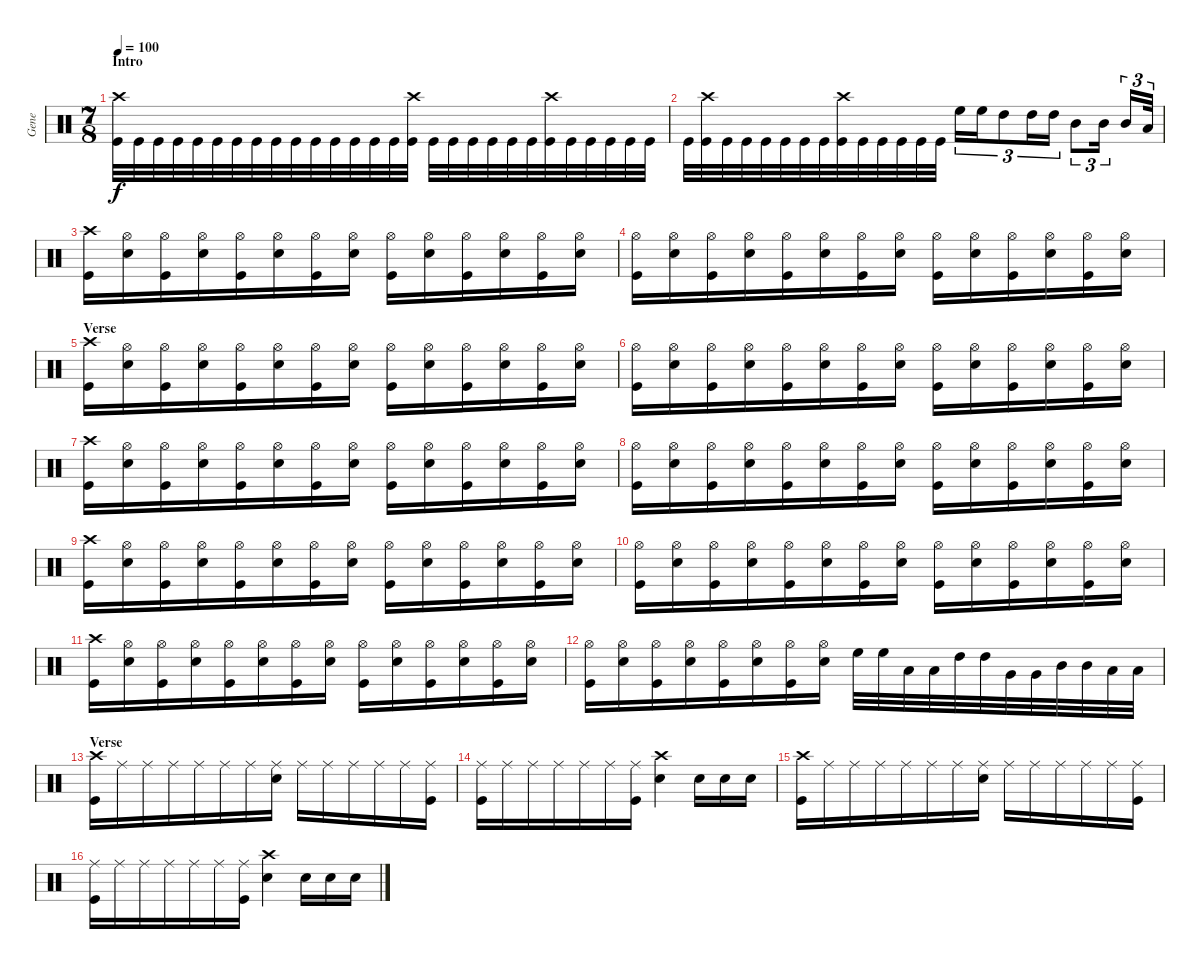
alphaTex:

\track ("Gene" "Gene") {instrument percussion}
\staff {score}
\articulation defaults
\ts (7 8)
\section ("" "Intro")
\tempo 100
\clef neutral
\ks c
("Crash high (hit)" "Kick (hit)").32{dy f} "Kick (hit)".32 "Kick (hit)".32 "Kick (hit)".32 "Kick (hit)".32 "Kick (hit)".32 "Kick (hit)".32 "Kick (hit)".32 "Kick (hit)".32 "Kick (hit)".32 "Kick (hit)".32 "Kick (hit)".32 "Kick (hit)".32 "Kick (hit)".32 "Kick (hit)".32 ("Crash high (hit)" "Kick (hit)").32 "Kick (hit)".32 "Kick (hit)".32 "Kick (hit)".32 "Kick (hit)".32 "Kick (hit)".32 "Kick (hit)".32 ("Crash high (hit)" "Kick (hit)").32 "Kick (hit)".32 "Kick (hit)".32 "Kick (hit)".32 "Kick (hit)".32 "Kick (hit)".32 |
"Kick (hit)".32 ("Crash high (hit)" "Kick (hit)").32 "Kick (hit)".32 "Kick (hit)".32 "Kick (hit)".32 "Kick (hit)".32 "Kick (hit)".32 "Kick (hit)".32 ("Crash high (hit)" "Kick (hit)").32 "Kick (hit)".32 "Kick (hit)".32 "Kick (hit)".32 "Kick (hit)".32 "Kick (hit)".32 "High Floor Tom (hit)".16{tu (3 2)} "High Floor Tom (hit)".16{tu (3 2)} "High Tom (hit)".8{tu (3 2)} "High Tom (hit)".16{tu (3 2)} "High Tom (hit)".16{tu (3 2)} "Mid Tom (hit)".8{tu (3 2)} "Mid Tom (hit)".16{tu (3 2)} "Mid Tom (hit)".16{tu (3 2)} "Low Tom (hit)".32{tu (3 2)} |
("Crash high (hit)" "Kick (hit)").16 ("Hi-Hat (open)" "Snare (hit) 2").16 ("Hi-Hat (open)" "Kick (hit)").16 ("Hi-Hat (open)" "Snare (hit) 2").16 ("Hi-Hat (open)" "Kick (hit)").16 ("Hi-Hat (open)" "Snare (hit) 2").16 ("Hi-Hat (open)" "Kick (hit)").16 ("Hi-Hat (open)" "Snare (hit) 2").16 ("Hi-Hat (open)" "Kick (hit)").16 ("Hi-Hat (open)" "Snare (hit) 2").16 ("Hi-Hat (open)" "Kick (hit)").16 ("Hi-Hat (open)" "Snare (hit) 2").16 ("Hi-Hat (open)" "Kick (hit)").16 ("Hi-Hat (open)" "Snare (hit) 2").16 |
("Hi-Hat (open)" "Kick (hit)").16 ("Hi-Hat (open)" "Snare (hit) 2").16 ("Hi-Hat (open)" "Kick (hit)").16 ("Hi-Hat (open)" "Snare (hit) 2").16 ("Hi-Hat (open)" "Kick (hit)").16 ("Hi-Hat (open)" "Snare (hit) 2").16 ("Hi-Hat (open)" "Kick (hit)").16 ("Hi-Hat (open)" "Snare (hit) 2").16 ("Hi-Hat (open)" "Kick (hit)").16 ("Hi-Hat (open)" "Snare (hit) 2").16 ("Hi-Hat (open)" "Kick (hit)").16 ("Hi-Hat (open)" "Snare (hit) 2").16 ("Hi-Hat (open)" "Kick (hit)").16 ("Hi-Hat (open)" "Snare (hit) 2").16 |
\section ("" "Verse")
("Crash high (hit)" "Kick (hit)").16 ("Hi-Hat (open)" "Snare (hit) 2").16 ("Hi-Hat (open)" "Kick (hit)").16 ("Hi-Hat (open)" "Snare (hit) 2").16 ("Hi-Hat (open)" "Kick (hit)").16 ("Hi-Hat (open)" "Snare (hit) 2").16 ("Hi-Hat (open)" "Kick (hit)").16 ("Hi-Hat (open)" "Snare (hit) 2").16 ("Hi-Hat (open)" "Kick (hit)").16 ("Hi-Hat (open)" "Snare (hit) 2").16 ("Hi-Hat (open)" "Kick (hit)").16 ("Hi-Hat (open)" "Snare (hit) 2").16 ("Hi-Hat (open)" "Kick (hit)").16 ("Hi-Hat (open)" "Snare (hit) 2").16 |
("Hi-Hat (open)" "Kick (hit)").16 ("Hi-Hat (open)" "Snare (hit) 2").16 ("Hi-Hat (open)" "Kick (hit)").16 ("Hi-Hat (open)" "Snare (hit) 2").16 ("Hi-Hat (open)" "Kick (hit)").16 ("Hi-Hat (open)" "Snare (hit) 2").16 ("Hi-Hat (open)" "Kick (hit)").16 ("Hi-Hat (open)" "Snare (hit) 2").16 ("Hi-Hat (open)" "Kick (hit)").16 ("Hi-Hat (open)" "Snare (hit) 2").16 ("Hi-Hat (open)" "Kick (hit)").16 ("Hi-Hat (open)" "Snare (hit) 2").16 ("Hi-Hat (open)" "Kick (hit)").16 ("Hi-Hat (open)" "Snare (hit) 2").16 |
("Crash high (hit)" "Kick (hit)").16 ("Hi-Hat (open)" "Snare (hit) 2").16 ("Hi-Hat (open)" "Kick (hit)").16 ("Hi-Hat (open)" "Snare (hit) 2").16 ("Hi-Hat (open)" "Kick (hit)").16 ("Hi-Hat (open)" "Snare (hit) 2").16 ("Hi-Hat (open)" "Kick (hit)").16 ("Hi-Hat (open)" "Snare (hit) 2").16 ("Hi-Hat (open)" "Kick (hit)").16 ("Hi-Hat (open)" "Snare (hit) 2").16 ("Hi-Hat (open)" "Kick (hit)").16 ("Hi-Hat (open)" "Snare (hit) 2").16 ("Hi-Hat (open)" "Kick (hit)").16 ("Hi-Hat (open)" "Snare (hit) 2").16 |
("Hi-Hat (open)" "Kick (hit)").16 ("Hi-Hat (open)" "Snare (hit) 2").16 ("Hi-Hat (open)" "Kick (hit)").16 ("Hi-Hat (open)" "Snare (hit) 2").16 ("Hi-Hat (open)" "Kick (hit)").16 ("Hi-Hat (open)" "Snare (hit) 2").16 ("Hi-Hat (open)" "Kick (hit)").16 ("Hi-Hat (open)" "Snare (hit) 2").16 ("Hi-Hat (open)" "Kick (hit)").16 ("Hi-Hat (open)" "Snare (hit) 2").16 ("Hi-Hat (open)" "Kick (hit)").16 ("Hi-Hat (open)" "Snare (hit) 2").16 ("Hi-Hat (open)" "Kick (hit)").16 ("Hi-Hat (open)" "Snare (hit) 2").16 |
("Crash high (hit)" "Kick (hit)").16 ("Hi-Hat (open)" "Snare (hit) 2").16 ("Hi-Hat (open)" "Kick (hit)").16 ("Hi-Hat (open)" "Snare (hit) 2").16 ("Hi-Hat (open)" "Kick (hit)").16 ("Hi-Hat (open)" "Snare (hit) 2").16 ("Hi-Hat (open)" "Kick (hit)").16 ("Hi-Hat (open)" "Snare (hit) 2").16 ("Hi-Hat (open)" "Kick (hit)").16 ("Hi-Hat (open)" "Snare (hit) 2").16 ("Hi-Hat (open)" "Kick (hit)").16 ("Hi-Hat (open)" "Snare (hit) 2").16 ("Hi-Hat (open)" "Kick (hit)").16 ("Hi-Hat (open)" "Snare (hit) 2").16 |
("Hi-Hat (open)" "Kick (hit)").16 ("Hi-Hat (open)" "Snare (hit) 2").16 ("Hi-Hat (open)" "Kick (hit)").16 ("Hi-Hat (open)" "Snare (hit) 2").16 ("Hi-Hat (open)" "Kick (hit)").16 ("Hi-Hat (open)" "Snare (hit) 2").16 ("Hi-Hat (open)" "Kick (hit)").16 ("Hi-Hat (open)" "Snare (hit) 2").16 ("Hi-Hat (open)" "Kick (hit)").16 ("Hi-Hat (open)" "Snare (hit) 2").16 ("Hi-Hat (open)" "Kick (hit)").16 ("Hi-Hat (open)" "Snare (hit) 2").16 ("Hi-Hat (open)" "Kick (hit)").16 ("Hi-Hat (open)" "Snare (hit) 2").16 |
("Crash high (hit)" "Kick (hit)").16 ("Hi-Hat (open)" "Snare (hit) 2").16 ("Hi-Hat (open)" "Kick (hit)").16 ("Hi-Hat (open)" "Snare (hit) 2").16 ("Hi-Hat (open)" "Kick (hit)").16 ("Hi-Hat (open)" "Snare (hit) 2").16 ("Hi-Hat (open)" "Kick (hit)").16 ("Hi-Hat (open)" "Snare (hit) 2").16 ("Hi-Hat (open)" "Kick (hit)").16 ("Hi-Hat (open)" "Snare (hit) 2").16 ("Hi-Hat (open)" "Kick (hit)").16 ("Hi-Hat (open)" "Snare (hit) 2").16 ("Hi-Hat (open)" "Kick (hit)").16 ("Hi-Hat (open)" "Snare (hit) 2").16 |
("Hi-Hat (open)" "Kick (hit)").16 ("Hi-Hat (open)" "Snare (hit) 2").16 ("Hi-Hat (open)" "Kick (hit)").16 ("Hi-Hat (open)" "Snare (hit) 2").16 ("Hi-Hat (open)" "Kick (hit)").16 ("Hi-Hat (open)" "Snare (hit) 2").16 ("Hi-Hat (open)" "Kick (hit)").16 ("Hi-Hat (open)" "Snare (hit) 2").16 "High Floor Tom (hit)".32 "High Floor Tom (hit)".32 "Low Tom (hit)".32 "Low Tom (hit)".32 "High Tom (hit)".32 "High Tom (hit)".32 "Very Low Tom (hit)".32 "Very Low Tom (hit)".32 "Mid Tom (hit)".32 "Mid Tom (hit)".32 "Low Floor Tom (hit)".32 "Low Floor Tom (hit)".32 |
\section ("" "Verse")
("Crash high (hit)" "Kick (hit)").16 "Ride (middle)".16 "Ride (middle)".16 "Ride (middle)".16 "Ride (middle)".16 "Ride (middle)".16 "Ride (middle)".16 ("Ride (middle)" "Snare (hit) 2").16 "Ride (middle)".16 "Ride (middle)".16 "Ride (middle)".16 "Ride (middle)".16 "Ride (middle)".16 ("Ride (middle)" "Kick (hit)").16 |
("Ride (middle)" "Kick (hit)").16 "Ride (middle)".16 "Ride (middle)".16 "Ride (middle)".16 "Ride (middle)".16 "Ride (middle)".16 ("Ride (middle)" "Kick (hit)").16 ("Crash high (hit)" "Snare (hit) 2").4 "Snare (hit) 2".16 "Snare (hit) 2".16 "Snare (hit) 2".16 |
("Crash high (hit)" "Kick (hit)").16 "Ride (middle)".16 "Ride (middle)".16 "Ride (middle)".16 "Ride (middle)".16 "Ride (middle)".16 "Ride (middle)".16 ("Ride (middle)" "Snare (hit) 2").16 "Ride (middle)".16 "Ride (middle)".16 "Ride (middle)".16 "Ride (middle)".16 "Ride (middle)".16 ("Ride (middle)" "Kick (hit)").16 |
("Ride (middle)" "Kick (hit)").16 "Ride (middle)".16 "Ride (middle)".16 "Ride (middle)".16 "Ride (middle)".16 "Ride (middle)".16 ("Ride (middle)" "Kick (hit)").16 ("Crash high (hit)" "Snare (hit) 2").4 "Snare (hit) 2".16 "Snare (hit) 2".16 "Snare (hit) 2".16
